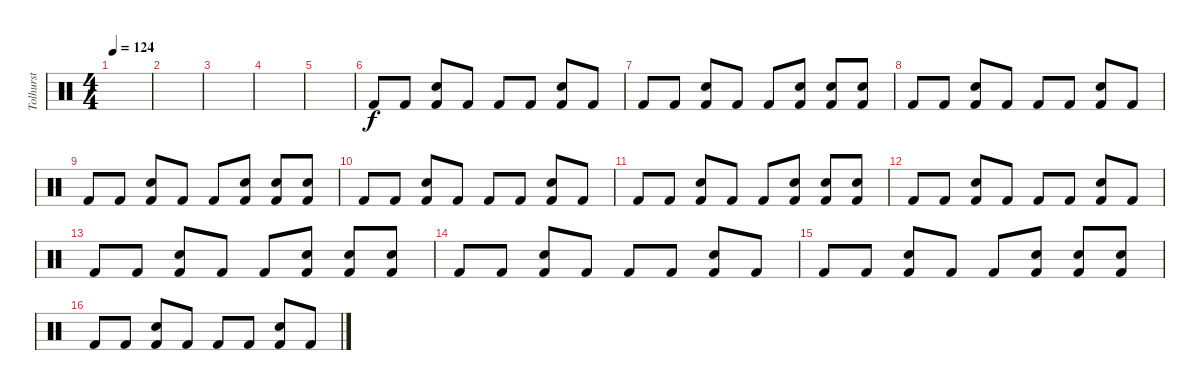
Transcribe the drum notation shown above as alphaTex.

\track ("Tolhurst" "Tolhurst") {instrument percussion}
\staff {score}
\articulation defaults
\ts (4 4)
\tempo 124
\clef neutral
\ks c
|
|
|
|
|
"Kick (hit) 2".8 "Kick (hit) 2".8 ("Kick (hit) 2" "Snare (hit) 2").8 "Kick (hit) 2".8 "Kick (hit) 2".8 "Kick (hit) 2".8 ("Kick (hit) 2" "Snare (hit) 2").8 "Kick (hit) 2".8 |
"Kick (hit) 2".8 "Kick (hit) 2".8 ("Kick (hit) 2" "Snare (hit) 2").8 "Kick (hit) 2".8 "Kick (hit) 2".8 ("Kick (hit) 2" "Snare (hit) 2").8 ("Kick (hit) 2" "Snare (hit) 2").8 ("Kick (hit) 2" "Snare (hit) 2").8 |
"Kick (hit) 2".8 "Kick (hit) 2".8 ("Kick (hit) 2" "Snare (hit) 2").8 "Kick (hit) 2".8 "Kick (hit) 2".8 "Kick (hit) 2".8 ("Kick (hit) 2" "Snare (hit) 2").8 "Kick (hit) 2".8 |
"Kick (hit) 2".8 "Kick (hit) 2".8 ("Kick (hit) 2" "Snare (hit) 2").8 "Kick (hit) 2".8 "Kick (hit) 2".8 ("Kick (hit) 2" "Snare (hit) 2").8 ("Kick (hit) 2" "Snare (hit) 2").8 ("Kick (hit) 2" "Snare (hit) 2").8 |
"Kick (hit) 2".8 "Kick (hit) 2".8 ("Kick (hit) 2" "Snare (hit) 2").8 "Kick (hit) 2".8 "Kick (hit) 2".8 "Kick (hit) 2".8 ("Kick (hit) 2" "Snare (hit) 2").8 "Kick (hit) 2".8 |
"Kick (hit) 2".8 "Kick (hit) 2".8 ("Kick (hit) 2" "Snare (hit) 2").8 "Kick (hit) 2".8 "Kick (hit) 2".8 ("Kick (hit) 2" "Snare (hit) 2").8 ("Kick (hit) 2" "Snare (hit) 2").8 ("Kick (hit) 2" "Snare (hit) 2").8 |
"Kick (hit) 2".8 "Kick (hit) 2".8 ("Kick (hit) 2" "Snare (hit) 2").8 "Kick (hit) 2".8 "Kick (hit) 2".8 "Kick (hit) 2".8 ("Kick (hit) 2" "Snare (hit) 2").8 "Kick (hit) 2".8 |
"Kick (hit) 2".8 "Kick (hit) 2".8 ("Kick (hit) 2" "Snare (hit) 2").8 "Kick (hit) 2".8 "Kick (hit) 2".8 ("Kick (hit) 2" "Snare (hit) 2").8 ("Kick (hit) 2" "Snare (hit) 2").8 ("Kick (hit) 2" "Snare (hit) 2").8 |
"Kick (hit) 2".8 "Kick (hit) 2".8 ("Kick (hit) 2" "Snare (hit) 2").8 "Kick (hit) 2".8 "Kick (hit) 2".8 "Kick (hit) 2".8 ("Kick (hit) 2" "Snare (hit) 2").8 "Kick (hit) 2".8 |
"Kick (hit) 2".8 "Kick (hit) 2".8 ("Kick (hit) 2" "Snare (hit) 2").8 "Kick (hit) 2".8 "Kick (hit) 2".8 ("Kick (hit) 2" "Snare (hit) 2").8 ("Kick (hit) 2" "Snare (hit) 2").8 ("Kick (hit) 2" "Snare (hit) 2").8 |
"Kick (hit) 2".8 "Kick (hit) 2".8 ("Kick (hit) 2" "Snare (hit) 2").8 "Kick (hit) 2".8 "Kick (hit) 2".8 "Kick (hit) 2".8 ("Kick (hit) 2" "Snare (hit) 2").8 "Kick (hit) 2".8
